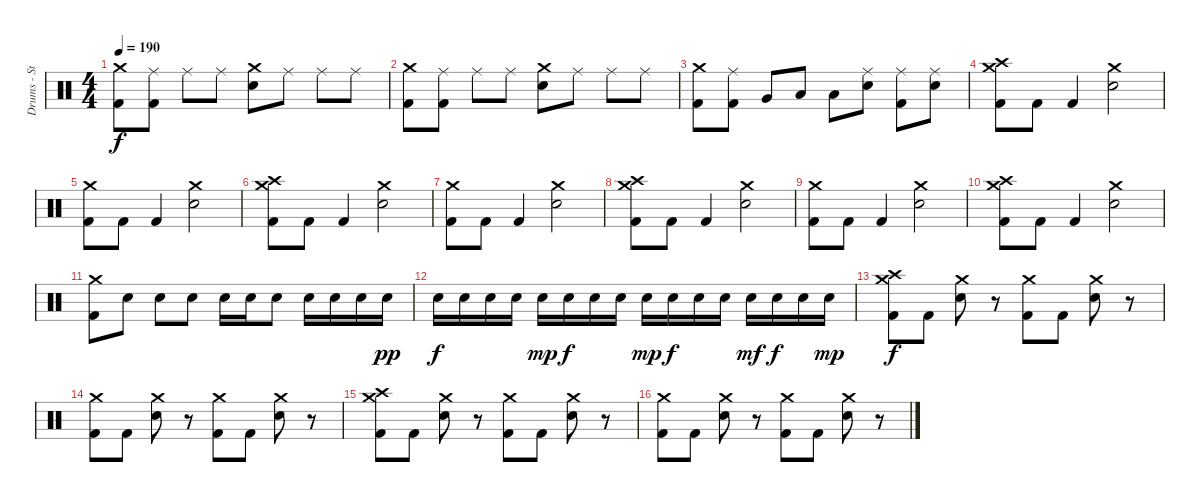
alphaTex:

\track ("Drums - Stevo 32" "Drums - St") {instrument percussion}
\staff {score}
\articulation defaults
\ts (4 4)
\tempo 190
\clef neutral
\ks c
("Crash medium (hit)" "Kick (hit) 2").8{dy f} ("Ride (middle)" "Kick (hit) 2").8 "Ride (middle)".8 "Ride (middle)".8 ("Crash medium (hit)" "Electric Snare (hit)").8 "Ride (middle)".8 "Ride (middle)".8 "Ride (middle)".8 |
("Crash medium (hit)" "Kick (hit) 2").8 ("Ride (middle)" "Kick (hit) 2").8 "Ride (middle)".8 "Ride (middle)".8 ("Crash medium (hit)" "Electric Snare (hit)").8 "Ride (middle)".8 "Ride (middle)".8 "Ride (middle)".8 |
("Crash medium (hit)" "Kick (hit) 2").8 ("Ride (middle)" "Kick (hit) 2").8 "Very Low Tom (hit)".8 "Low Floor Tom (hit)".8 "Low Tom (hit)".8 ("Ride (middle)" "Electric Snare (hit)").8 ("Ride (middle)" "Kick (hit) 2").8 ("Ride (middle)" "Electric Snare (hit)").8 |
("Crash medium (hit)" "Crash high (hit)" "Kick (hit) 2").8 "Kick (hit) 2".8 "Kick (hit) 2".4 ("Crash medium (hit)" "Electric Snare (hit)").2 |
("Crash medium (hit)" "Kick (hit) 2").8 "Kick (hit) 2".8 "Kick (hit) 2".4 ("Crash medium (hit)" "Electric Snare (hit)").2 |
("Crash medium (hit)" "Crash high (hit)" "Kick (hit) 2").8 "Kick (hit) 2".8 "Kick (hit) 2".4 ("Crash medium (hit)" "Electric Snare (hit)").2 |
("Crash medium (hit)" "Kick (hit) 2").8 "Kick (hit) 2".8 "Kick (hit) 2".4 ("Crash medium (hit)" "Electric Snare (hit)").2 |
("Crash medium (hit)" "Crash high (hit)" "Kick (hit) 2").8 "Kick (hit) 2".8 "Kick (hit) 2".4 ("Crash medium (hit)" "Electric Snare (hit)").2 |
("Crash medium (hit)" "Kick (hit) 2").8 "Kick (hit) 2".8 "Kick (hit) 2".4 ("Crash medium (hit)" "Electric Snare (hit)").2 |
("Crash medium (hit)" "Crash high (hit)" "Kick (hit) 2").8 "Kick (hit) 2".8 "Kick (hit) 2".4 ("Crash medium (hit)" "Electric Snare (hit)").2 |
("Crash medium (hit)" "Kick (hit) 2").8 "Electric Snare (hit)".8 "Electric Snare (hit)".8 "Electric Snare (hit)".8 "Electric Snare (hit)".16 "Electric Snare (hit)".16 "Electric Snare (hit)".8 "Electric Snare (hit)".16 "Electric Snare (hit)".16 "Electric Snare (hit)".16 "Electric Snare (hit)".16{dy pp} |
"Electric Snare (hit)".16{dy f} "Electric Snare (hit)".16 "Electric Snare (hit)".16 "Electric Snare (hit)".16 "Electric Snare (hit)".16{dy mp} "Electric Snare (hit)".16{dy f} "Electric Snare (hit)".16 "Electric Snare (hit)".16 "Electric Snare (hit)".16{dy mp} "Electric Snare (hit)".16{dy f} "Electric Snare (hit)".16 "Electric Snare (hit)".16 "Electric Snare (hit)".16{dy mf} "Electric Snare (hit)".16{dy f} "Electric Snare (hit)".16 "Electric Snare (hit)".16{dy mp} |
("Crash high (hit)" "Crash medium (hit)" "Kick (hit) 2").8{dy f} "Kick (hit) 2".8 ("Crash medium (hit)" "Electric Snare (hit)").8 r.8 ("Crash medium (hit)" "Kick (hit) 2").8 "Kick (hit) 2".8 ("Crash medium (hit)" "Electric Snare (hit)").8 r.8 |
("Crash medium (hit)" "Kick (hit) 2").8 "Kick (hit) 2".8 ("Crash medium (hit)" "Electric Snare (hit)").8 r.8 ("Crash medium (hit)" "Kick (hit) 2").8 "Kick (hit) 2".8 ("Crash medium (hit)" "Electric Snare (hit)").8 r.8 |
("Crash high (hit)" "Crash medium (hit)" "Kick (hit) 2").8 "Kick (hit) 2".8 ("Crash medium (hit)" "Electric Snare (hit)").8 r.8 ("Crash medium (hit)" "Kick (hit) 2").8 "Kick (hit) 2".8 ("Crash medium (hit)" "Electric Snare (hit)").8 r.8 |
("Crash medium (hit)" "Kick (hit) 2").8 "Kick (hit) 2".8 ("Crash medium (hit)" "Electric Snare (hit)").8 r.8 ("Crash medium (hit)" "Kick (hit) 2").8 "Kick (hit) 2".8 ("Crash medium (hit)" "Electric Snare (hit)").8 r.8
